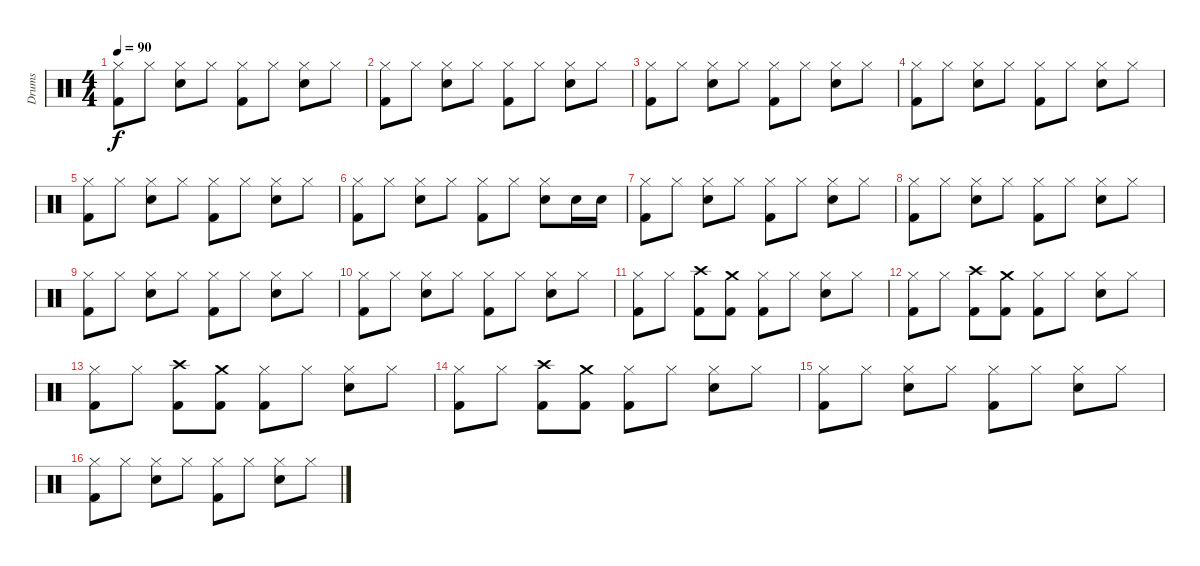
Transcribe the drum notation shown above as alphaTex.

\track ("Drums" "Drums") {instrument percussion}
\staff {score}
\articulation defaults
\ts (4 4)
\tempo 90
\clef neutral
\ks c
("Hi-Hat (closed)" "Kick (hit) 2").8{dy f} "Hi-Hat (closed)".8 ("Hi-Hat (closed)" "Snare (hit) 2").8 "Hi-Hat (closed)".8 ("Hi-Hat (closed)" "Kick (hit) 2").8 "Hi-Hat (closed)".8 ("Hi-Hat (closed)" "Snare (hit) 2").8 "Hi-Hat (closed)".8 |
("Hi-Hat (closed)" "Kick (hit) 2").8 "Hi-Hat (closed)".8 ("Hi-Hat (closed)" "Snare (hit) 2").8 "Hi-Hat (closed)".8 ("Hi-Hat (closed)" "Kick (hit) 2").8 "Hi-Hat (closed)".8 ("Hi-Hat (closed)" "Snare (hit) 2").8 "Hi-Hat (closed)".8 |
("Hi-Hat (closed)" "Kick (hit) 2").8 "Hi-Hat (closed)".8 ("Hi-Hat (closed)" "Snare (hit) 2").8 "Hi-Hat (closed)".8 ("Hi-Hat (closed)" "Kick (hit) 2").8 "Hi-Hat (closed)".8 ("Hi-Hat (closed)" "Snare (hit) 2").8 "Hi-Hat (closed)".8 |
("Hi-Hat (closed)" "Kick (hit) 2").8 "Hi-Hat (closed)".8 ("Hi-Hat (closed)" "Snare (hit) 2").8 "Hi-Hat (closed)".8 ("Hi-Hat (closed)" "Kick (hit) 2").8 "Hi-Hat (closed)".8 ("Hi-Hat (closed)" "Snare (hit) 2").8 "Hi-Hat (closed)".8 |
("Hi-Hat (closed)" "Kick (hit) 2").8 "Hi-Hat (closed)".8 ("Hi-Hat (closed)" "Snare (hit) 2").8 "Hi-Hat (closed)".8 ("Hi-Hat (closed)" "Kick (hit) 2").8 "Hi-Hat (closed)".8 ("Hi-Hat (closed)" "Snare (hit) 2").8 "Hi-Hat (closed)".8 |
("Hi-Hat (closed)" "Kick (hit) 2").8 "Hi-Hat (closed)".8 ("Hi-Hat (closed)" "Snare (hit) 2").8 "Hi-Hat (closed)".8 ("Hi-Hat (closed)" "Kick (hit) 2").8 "Hi-Hat (closed)".8 ("Hi-Hat (closed)" "Snare (hit) 2").8 "Snare (hit) 2".16 "Snare (hit) 2".16 |
("Hi-Hat (closed)" "Kick (hit) 2").8 "Hi-Hat (closed)".8 ("Hi-Hat (closed)" "Snare (hit) 2").8 "Hi-Hat (closed)".8 ("Hi-Hat (closed)" "Kick (hit) 2").8 "Hi-Hat (closed)".8 ("Hi-Hat (closed)" "Snare (hit) 2").8 "Hi-Hat (closed)".8 |
("Hi-Hat (closed)" "Kick (hit) 2").8 "Hi-Hat (closed)".8 ("Hi-Hat (closed)" "Snare (hit) 2").8 "Hi-Hat (closed)".8 ("Hi-Hat (closed)" "Kick (hit) 2").8 "Hi-Hat (closed)".8 ("Hi-Hat (closed)" "Snare (hit) 2").8 "Hi-Hat (closed)".8 |
("Hi-Hat (closed)" "Kick (hit) 2").8 "Hi-Hat (closed)".8 ("Hi-Hat (closed)" "Snare (hit) 2").8 "Hi-Hat (closed)".8 ("Hi-Hat (closed)" "Kick (hit) 2").8 "Hi-Hat (closed)".8 ("Hi-Hat (closed)" "Snare (hit) 2").8 "Hi-Hat (closed)".8 |
("Hi-Hat (closed)" "Kick (hit) 2").8 "Hi-Hat (closed)".8 ("Hi-Hat (closed)" "Snare (hit) 2").8 "Hi-Hat (closed)".8 ("Hi-Hat (closed)" "Kick (hit) 2").8 "Hi-Hat (closed)".8 ("Hi-Hat (closed)" "Snare (hit) 2").8 "Hi-Hat (closed)".8 |
("Hi-Hat (closed)" "Kick (hit) 2").8 "Hi-Hat (closed)".8 ("Crash high (hit)" "Kick (hit) 2").8 ("Crash medium (hit)" "Kick (hit) 2").8 ("Hi-Hat (closed)" "Kick (hit) 2").8 "Hi-Hat (closed)".8 ("Hi-Hat (closed)" "Snare (hit) 2").8 "Hi-Hat (closed)".8 |
("Hi-Hat (closed)" "Kick (hit) 2").8 "Hi-Hat (closed)".8 ("Crash high (hit)" "Kick (hit) 2").8 ("Crash medium (hit)" "Kick (hit) 2").8 ("Hi-Hat (closed)" "Kick (hit) 2").8 "Hi-Hat (closed)".8 ("Hi-Hat (closed)" "Snare (hit) 2").8 "Hi-Hat (closed)".8 |
("Hi-Hat (closed)" "Kick (hit) 2").8 "Hi-Hat (closed)".8 ("Crash high (hit)" "Kick (hit) 2").8 ("Crash medium (hit)" "Kick (hit) 2").8 ("Hi-Hat (closed)" "Kick (hit) 2").8 "Hi-Hat (closed)".8 ("Hi-Hat (closed)" "Snare (hit) 2").8 "Hi-Hat (closed)".8 |
("Hi-Hat (closed)" "Kick (hit) 2").8 "Hi-Hat (closed)".8 ("Crash high (hit)" "Kick (hit) 2").8 ("Crash medium (hit)" "Kick (hit) 2").8 ("Hi-Hat (closed)" "Kick (hit) 2").8 "Hi-Hat (closed)".8 ("Hi-Hat (closed)" "Snare (hit) 2").8 "Hi-Hat (closed)".8 |
("Hi-Hat (closed)" "Kick (hit) 2").8 "Hi-Hat (closed)".8 ("Hi-Hat (closed)" "Snare (hit) 2").8 "Hi-Hat (closed)".8 ("Hi-Hat (closed)" "Kick (hit) 2").8 "Hi-Hat (closed)".8 ("Hi-Hat (closed)" "Snare (hit) 2").8 "Hi-Hat (closed)".8 |
("Hi-Hat (closed)" "Kick (hit) 2").8 "Hi-Hat (closed)".8 ("Hi-Hat (closed)" "Snare (hit) 2").8 "Hi-Hat (closed)".8 ("Hi-Hat (closed)" "Kick (hit) 2").8 "Hi-Hat (closed)".8 ("Hi-Hat (closed)" "Snare (hit) 2").8 "Hi-Hat (closed)".8
